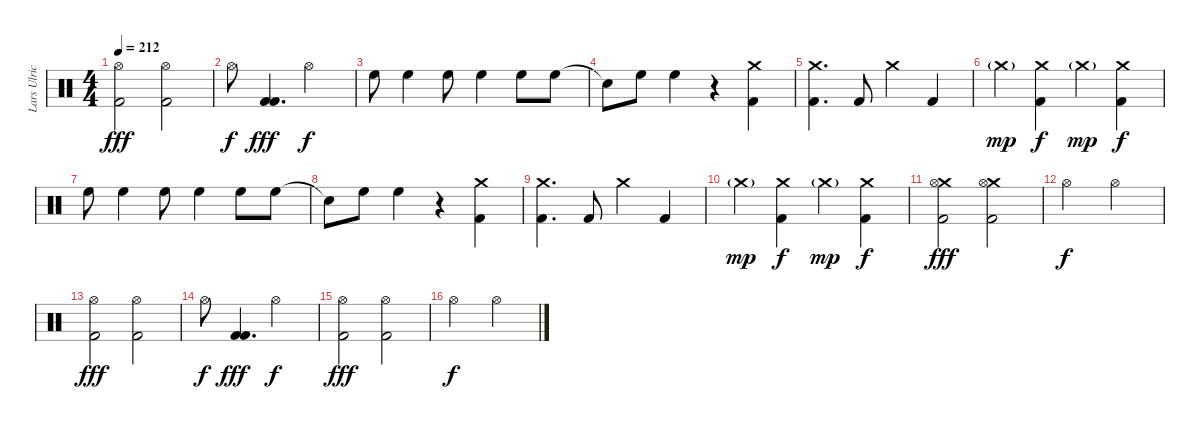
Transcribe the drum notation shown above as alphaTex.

\track ("Lars Ulrich" "Lars Ulric") {instrument percussion}
\staff {score}
\articulation defaults
\ts (4 4)
\tempo 212
\clef neutral
\ks c
("Hi-Hat (open)" "Kick (hit) 2").2{dy fff} ("Hi-Hat (open)" "Kick (hit) 2").2 |
"Hi-Hat (open)".8{dy f} ("Kick (hit) 2" "Kick (hit) 2").4{d dy fff} "Hi-Hat (open)".2{dy f} |
"High Floor Tom (hit)".8 "High Floor Tom (hit)".4 "High Floor Tom (hit)".8 "High Floor Tom (hit)".4 "High Floor Tom (hit)".8 "High Floor Tom (hit)".8 |
"Snare (hit)"{t}.8 "High Floor Tom (hit)".8 "High Floor Tom (hit)".4 r.4 ("Crash medium (hit)" "Kick (hit) 2").4 |
("Crash medium (hit)" "Kick (hit) 2").4{d} "Kick (hit) 2".8 "Crash medium (hit)".4 "Kick (hit) 2".4 |
"Crash medium (hit)"{g}.4{dy mp} ("Crash medium (hit)" "Kick (hit) 2").4{dy f} "Crash medium (hit)"{g}.4{dy mp} ("Crash medium (hit)" "Kick (hit) 2").4{dy f} |
"High Floor Tom (hit)".8 "High Floor Tom (hit)".4 "High Floor Tom (hit)".8 "High Floor Tom (hit)".4 "High Floor Tom (hit)".8 "High Floor Tom (hit)".8 |
"Snare (hit)"{t}.8 "High Floor Tom (hit)".8 "High Floor Tom (hit)".4 r.4 ("Crash medium (hit)" "Kick (hit) 2").4 |
("Crash medium (hit)" "Kick (hit) 2").4{d} "Kick (hit) 2".8 "Crash medium (hit)".4 "Kick (hit) 2".4 |
"Crash medium (hit)"{g}.4{dy mp} ("Crash medium (hit)" "Kick (hit) 2").4{dy f} "Crash medium (hit)"{g}.4{dy mp} ("Crash medium (hit)" "Kick (hit) 2").4{dy f} |
("Crash medium (hit)" "Hi-Hat (open)" "Kick (hit) 2").2{dy fff} ("Crash medium (hit)" "Hi-Hat (open)" "Kick (hit) 2").2 |
"Hi-Hat (open)".2{dy f} "Hi-Hat (open)".2 |
("Hi-Hat (open)" "Kick (hit) 2").2{dy fff} ("Hi-Hat (open)" "Kick (hit) 2").2 |
"Hi-Hat (open)".8{dy f} ("Kick (hit) 2" "Kick (hit) 2").4{d dy fff} "Hi-Hat (open)".2{dy f} |
("Hi-Hat (open)" "Kick (hit) 2").2{dy fff} ("Hi-Hat (open)" "Kick (hit) 2").2 |
"Hi-Hat (open)".2{dy f} "Hi-Hat (open)".2
